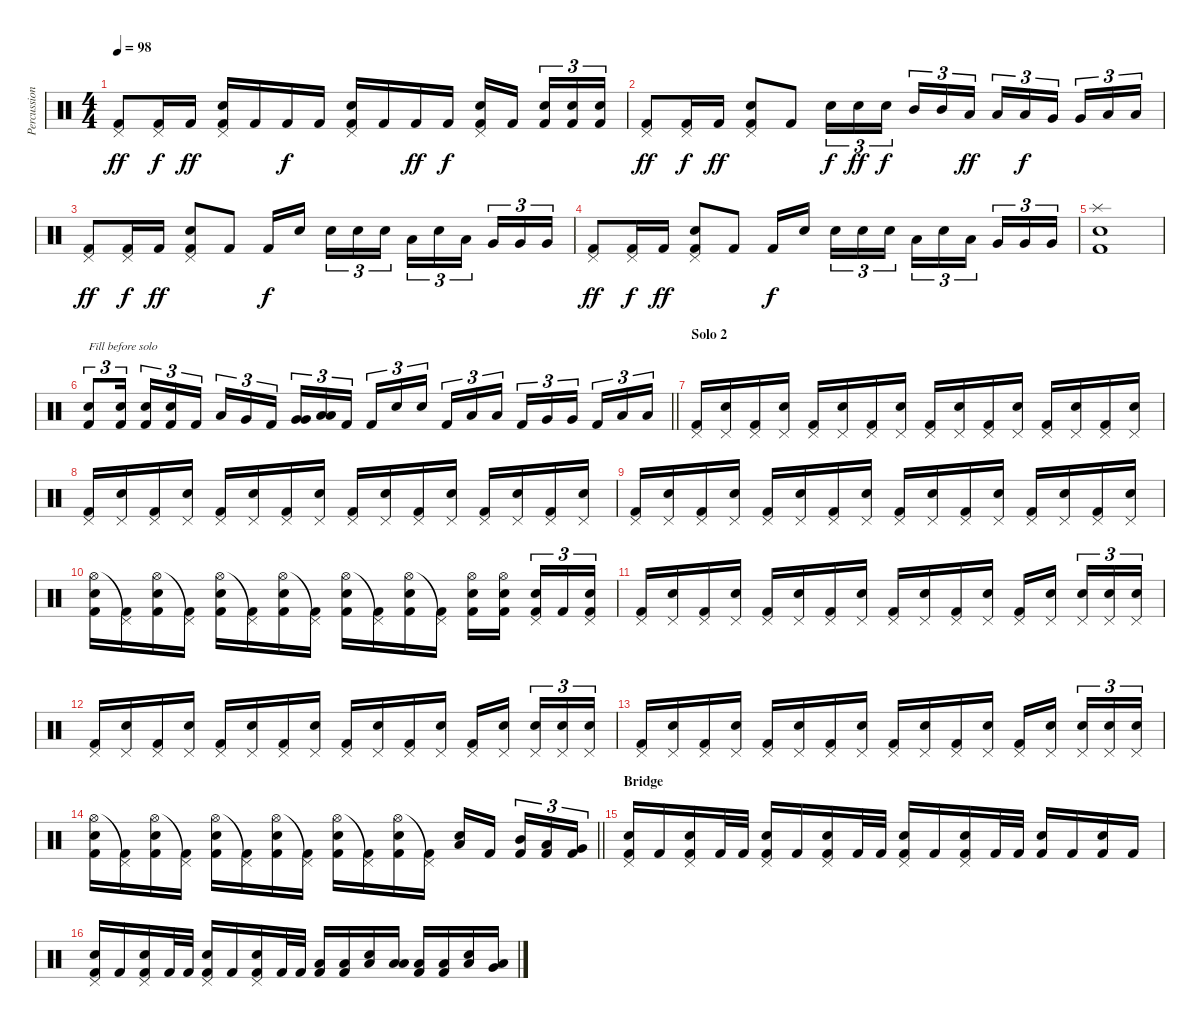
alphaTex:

\track ("Percussion" "Percussion") {instrument percussion}
\staff {score}
\articulation defaults
\ts (4 4)
\tempo 98
\clef neutral
\ks c
("Pedal Hi-Hat (hit)" "Kick (hit) 2").8{dy ff} ("Pedal Hi-Hat (hit)" "Kick (hit) 2").16{dy f} "Kick (hit) 2".16{dy ff} ("Pedal Hi-Hat (hit)" "Snare (hit) 2" "Kick (hit) 2").16 "Kick (hit) 2".16 "Kick (hit) 2".16{dy f} "Kick (hit) 2".16 ("Pedal Hi-Hat (hit)" "Snare (hit) 2" "Kick (hit) 2").16 "Kick (hit) 2".16 "Kick (hit) 2".16{dy ff} "Kick (hit) 2".16{dy f} ("Pedal Hi-Hat (hit)" "Snare (hit) 2" "Kick (hit) 2").16 "Kick (hit) 2".16{beam splitsecondary} ("Snare (hit) 2" "Kick (hit) 2").16{tu (3 2)} ("Snare (hit) 2" "Kick (hit) 2").16{tu (3 2)} ("Snare (hit) 2" "Kick (hit) 2").16{tu (3 2)} |
("Pedal Hi-Hat (hit)" "Kick (hit) 2").8{dy ff} ("Pedal Hi-Hat (hit)" "Kick (hit) 2").16{dy f} "Kick (hit) 2".16{dy ff} ("Pedal Hi-Hat (hit)" "Snare (hit) 2" "Kick (hit) 2").8 "Kick (hit) 2".8 "Snare (hit) 2".16{tu (3 2) dy f} "Snare (hit) 2".16{tu (3 2) dy ff} "Snare (hit) 2".16{tu (3 2) dy f beam splitsecondary} "Mid Tom (hit)".16{tu (3 2)} "Mid Tom (hit)".16{tu (3 2)} "Low Tom (hit)".16{tu (3 2) dy ff} "Low Tom (hit)".16{tu (3 2)} "Low Tom (hit)".16{tu (3 2) dy f} "Very Low Tom (hit)".16{tu (3 2) beam splitsecondary} "Very Low Tom (hit)".16{tu (3 2)} "Low Floor Tom (hit)".16{tu (3 2)} "Low Floor Tom (hit)".16{tu (3 2)} |
("Pedal Hi-Hat (hit)" "Kick (hit) 2").8{dy ff} ("Pedal Hi-Hat (hit)" "Kick (hit) 2").16{dy f} "Kick (hit) 2".16{dy ff} ("Pedal Hi-Hat (hit)" "Snare (hit) 2" "Kick (hit) 2").8 "Kick (hit) 2".8 "Kick (hit) 2".16{dy f} "Snare (hit) 2".16{beam splitsecondary} "Snare (hit) 2".16{tu (3 2)} "Snare (hit) 2".16{tu (3 2)} "Snare (hit) 2".16{tu (3 2)} "Low Tom (hit)".16{tu (3 2)} "Snare (hit) 2".16{tu (3 2)} "Low Tom (hit)".16{tu (3 2) beam splitsecondary} "Very Low Tom (hit)".16{tu (3 2)} "Very Low Tom (hit)".16{tu (3 2)} "Very Low Tom (hit)".16{tu (3 2)} |
("Pedal Hi-Hat (hit)" "Kick (hit) 2").8{dy ff} ("Pedal Hi-Hat (hit)" "Kick (hit) 2").16{dy f} "Kick (hit) 2".16{dy ff} ("Pedal Hi-Hat (hit)" "Snare (hit) 2" "Kick (hit) 2").8 "Kick (hit) 2".8 "Kick (hit) 2".16{dy f} "Snare (hit) 2".16{beam splitsecondary} "Snare (hit) 2".16{tu (3 2)} "Snare (hit) 2".16{tu (3 2)} "Snare (hit) 2".16{tu (3 2)} "Low Tom (hit)".16{tu (3 2)} "Snare (hit) 2".16{tu (3 2)} "Low Tom (hit)".16{tu (3 2) beam splitsecondary} "Very Low Tom (hit)".16{tu (3 2)} "Very Low Tom (hit)".16{tu (3 2)} "Very Low Tom (hit)".16{tu (3 2)} |
("Splash (hit)" "Snare (hit) 2" "Kick (hit) 2").1 |
\barLineRight lightlight
("Snare (hit) 2" "Kick (hit) 2").8{tu (3 2) txt "Fill before solo"} ("Snare (hit) 2" "Kick (hit) 2").16{tu (3 2) beam splitsecondary} ("Snare (hit) 2" "Kick (hit) 2").16{tu (3 2)} ("Snare (hit) 2" "Kick (hit) 2").16{tu (3 2)} "Kick (hit) 2".16{tu (3 2)} "Low Tom (hit)".16{tu (3 2)} "Very Low Tom (hit)".16{tu (3 2)} "Kick (hit) 2".16{tu (3 2) beam splitsecondary} ("Very Low Tom (hit)" "Very Low Tom (hit)").16{tu (3 2)} ("Low Floor Tom (hit)" "Low Floor Tom (hit)").16{tu (3 2)} "Kick (hit) 2".16{tu (3 2)} "Kick (hit) 2".16{tu (3 2)} "Snare (hit) 2".16{tu (3 2)} "Snare (hit) 2".16{tu (3 2) beam splitsecondary} "Kick (hit) 2".16{tu (3 2)} "Low Tom (hit)".16{tu (3 2)} "Low Tom (hit)".16{tu (3 2)} "Kick (hit) 2".16{tu (3 2)} "Very Low Tom (hit)".16{tu (3 2)} "Very Low Tom (hit)".16{tu (3 2) beam splitsecondary} "Kick (hit) 2".16{tu (3 2)} "Low Floor Tom (hit)".16{tu (3 2)} "Low Floor Tom (hit)".16{tu (3 2)} |
\section ("" "Solo 2")
("Pedal Hi-Hat (hit)" "Kick (hit) 2").16 ("Pedal Hi-Hat (hit)" "Snare (hit) 2").16 ("Pedal Hi-Hat (hit)" "Kick (hit) 2").16 ("Pedal Hi-Hat (hit)" "Snare (hit) 2").16 ("Pedal Hi-Hat (hit)" "Kick (hit) 2").16 ("Pedal Hi-Hat (hit)" "Snare (hit) 2").16 ("Pedal Hi-Hat (hit)" "Kick (hit) 2").16 ("Pedal Hi-Hat (hit)" "Snare (hit) 2").16 ("Pedal Hi-Hat (hit)" "Kick (hit) 2").16 ("Pedal Hi-Hat (hit)" "Snare (hit) 2").16 ("Pedal Hi-Hat (hit)" "Kick (hit) 2").16 ("Pedal Hi-Hat (hit)" "Snare (hit) 2").16 ("Pedal Hi-Hat (hit)" "Kick (hit) 2").16 ("Pedal Hi-Hat (hit)" "Snare (hit) 2").16 ("Pedal Hi-Hat (hit)" "Kick (hit) 2").16 ("Pedal Hi-Hat (hit)" "Snare (hit) 2").16 |
("Pedal Hi-Hat (hit)" "Kick (hit) 2").16 ("Pedal Hi-Hat (hit)" "Snare (hit) 2").16 ("Pedal Hi-Hat (hit)" "Kick (hit) 2").16 ("Pedal Hi-Hat (hit)" "Snare (hit) 2").16 ("Pedal Hi-Hat (hit)" "Kick (hit) 2").16 ("Pedal Hi-Hat (hit)" "Snare (hit) 2").16 ("Pedal Hi-Hat (hit)" "Kick (hit) 2").16 ("Pedal Hi-Hat (hit)" "Snare (hit) 2").16 ("Pedal Hi-Hat (hit)" "Kick (hit) 2").16 ("Pedal Hi-Hat (hit)" "Snare (hit) 2").16 ("Pedal Hi-Hat (hit)" "Kick (hit) 2").16 ("Pedal Hi-Hat (hit)" "Snare (hit) 2").16 ("Pedal Hi-Hat (hit)" "Kick (hit) 2").16 ("Pedal Hi-Hat (hit)" "Snare (hit) 2").16 ("Pedal Hi-Hat (hit)" "Kick (hit) 2").16 ("Pedal Hi-Hat (hit)" "Snare (hit) 2").16 |
("Pedal Hi-Hat (hit)" "Kick (hit) 2").16 ("Pedal Hi-Hat (hit)" "Snare (hit) 2").16 ("Pedal Hi-Hat (hit)" "Kick (hit) 2").16 ("Pedal Hi-Hat (hit)" "Snare (hit) 2").16 ("Pedal Hi-Hat (hit)" "Kick (hit) 2").16 ("Pedal Hi-Hat (hit)" "Snare (hit) 2").16 ("Pedal Hi-Hat (hit)" "Kick (hit) 2").16 ("Pedal Hi-Hat (hit)" "Snare (hit) 2").16 ("Pedal Hi-Hat (hit)" "Kick (hit) 2").16 ("Pedal Hi-Hat (hit)" "Snare (hit) 2").16 ("Pedal Hi-Hat (hit)" "Kick (hit) 2").16 ("Pedal Hi-Hat (hit)" "Snare (hit) 2").16 ("Pedal Hi-Hat (hit)" "Kick (hit) 2").16 ("Pedal Hi-Hat (hit)" "Snare (hit) 2").16 ("Pedal Hi-Hat (hit)" "Kick (hit) 2").16 ("Pedal Hi-Hat (hit)" "Snare (hit) 2").16 |
("Hi-Hat (open)" "Snare (hit) 2" "Kick (hit) 2").16 ("Pedal Hi-Hat (hit)"{t} "Kick (hit) 2").16 ("Hi-Hat (open)" "Snare (hit) 2" "Kick (hit) 2").16 ("Pedal Hi-Hat (hit)"{t} "Kick (hit) 2").16 ("Hi-Hat (open)" "Snare (hit) 2" "Kick (hit) 2").16 ("Pedal Hi-Hat (hit)"{t} "Kick (hit) 2").16 ("Hi-Hat (open)" "Snare (hit) 2" "Kick (hit) 2").16 ("Pedal Hi-Hat (hit)"{t} "Kick (hit) 2").16 ("Hi-Hat (open)" "Snare (hit) 2" "Kick (hit) 2").16 ("Pedal Hi-Hat (hit)"{t} "Kick (hit) 2").16 ("Hi-Hat (open)" "Snare (hit) 2" "Kick (hit) 2").16 ("Pedal Hi-Hat (hit)"{t} "Kick (hit) 2").16 ("Hi-Hat (open)" "Snare (hit) 2" "Kick (hit) 2").16 ("Hi-Hat (open)" "Snare (hit) 2" "Kick (hit) 2").16{beam splitsecondary} ("Pedal Hi-Hat (hit)" "Snare (hit) 2" "Kick (hit) 2").16{tu (3 2)} "Kick (hit) 2".16{tu (3 2)} ("Pedal Hi-Hat (hit)" "Snare (hit) 2" "Kick (hit) 2").16{tu (3 2)} |
("Pedal Hi-Hat (hit)" "Kick (hit) 2").16 ("Pedal Hi-Hat (hit)" "Snare (hit) 2").16 ("Pedal Hi-Hat (hit)" "Kick (hit) 2").16 ("Pedal Hi-Hat (hit)" "Snare (hit) 2").16 ("Pedal Hi-Hat (hit)" "Kick (hit) 2").16 ("Pedal Hi-Hat (hit)" "Snare (hit) 2").16 ("Pedal Hi-Hat (hit)" "Kick (hit) 2").16 ("Pedal Hi-Hat (hit)" "Snare (hit) 2").16 ("Pedal Hi-Hat (hit)" "Kick (hit) 2").16 ("Pedal Hi-Hat (hit)" "Snare (hit) 2").16 ("Pedal Hi-Hat (hit)" "Kick (hit) 2").16 ("Pedal Hi-Hat (hit)" "Snare (hit) 2").16 ("Pedal Hi-Hat (hit)" "Kick (hit) 2").16 ("Pedal Hi-Hat (hit)" "Snare (hit) 2").16{beam splitsecondary} ("Pedal Hi-Hat (hit)" "Snare (hit) 2").16{tu (3 2)} ("Pedal Hi-Hat (hit)" "Snare (hit) 2").16{tu (3 2)} ("Pedal Hi-Hat (hit)" "Snare (hit) 2").16{tu (3 2)} |
("Pedal Hi-Hat (hit)" "Kick (hit) 2").16 ("Pedal Hi-Hat (hit)" "Snare (hit) 2").16 ("Pedal Hi-Hat (hit)" "Kick (hit) 2").16 ("Pedal Hi-Hat (hit)" "Snare (hit) 2").16 ("Pedal Hi-Hat (hit)" "Kick (hit) 2").16 ("Pedal Hi-Hat (hit)" "Snare (hit) 2").16 ("Pedal Hi-Hat (hit)" "Kick (hit) 2").16 ("Pedal Hi-Hat (hit)" "Snare (hit) 2").16 ("Pedal Hi-Hat (hit)" "Kick (hit) 2").16 ("Pedal Hi-Hat (hit)" "Snare (hit) 2").16 ("Pedal Hi-Hat (hit)" "Kick (hit) 2").16 ("Pedal Hi-Hat (hit)" "Snare (hit) 2").16 ("Pedal Hi-Hat (hit)" "Kick (hit) 2").16 ("Pedal Hi-Hat (hit)" "Snare (hit) 2").16{beam splitsecondary} ("Pedal Hi-Hat (hit)" "Snare (hit) 2").16{tu (3 2)} ("Pedal Hi-Hat (hit)" "Snare (hit) 2").16{tu (3 2)} ("Pedal Hi-Hat (hit)" "Snare (hit) 2").16{tu (3 2)} |
("Pedal Hi-Hat (hit)" "Kick (hit) 2").16 ("Pedal Hi-Hat (hit)" "Snare (hit) 2").16 ("Pedal Hi-Hat (hit)" "Kick (hit) 2").16 ("Pedal Hi-Hat (hit)" "Snare (hit) 2").16 ("Pedal Hi-Hat (hit)" "Kick (hit) 2").16 ("Pedal Hi-Hat (hit)" "Snare (hit) 2").16 ("Pedal Hi-Hat (hit)" "Kick (hit) 2").16 ("Pedal Hi-Hat (hit)" "Snare (hit) 2").16 ("Pedal Hi-Hat (hit)" "Kick (hit) 2").16 ("Pedal Hi-Hat (hit)" "Snare (hit) 2").16 ("Pedal Hi-Hat (hit)" "Kick (hit) 2").16 ("Pedal Hi-Hat (hit)" "Snare (hit) 2").16 ("Pedal Hi-Hat (hit)" "Kick (hit) 2").16 ("Pedal Hi-Hat (hit)" "Snare (hit) 2").16{beam splitsecondary} ("Pedal Hi-Hat (hit)" "Snare (hit) 2").16{tu (3 2)} ("Pedal Hi-Hat (hit)" "Snare (hit) 2").16{tu (3 2)} ("Pedal Hi-Hat (hit)" "Snare (hit) 2").16{tu (3 2)} |
\barLineRight lightlight
("Hi-Hat (open)" "Snare (hit) 2" "Kick (hit) 2").16 ("Pedal Hi-Hat (hit)"{t} "Kick (hit) 2").16 ("Hi-Hat (open)" "Snare (hit) 2" "Kick (hit) 2").16 ("Pedal Hi-Hat (hit)"{t} "Kick (hit) 2").16 ("Hi-Hat (open)" "Snare (hit) 2" "Kick (hit) 2").16 ("Pedal Hi-Hat (hit)"{t} "Kick (hit) 2").16 ("Hi-Hat (open)" "Snare (hit) 2" "Kick (hit) 2").16 ("Pedal Hi-Hat (hit)"{t} "Kick (hit) 2").16 ("Hi-Hat (open)" "Snare (hit) 2" "Kick (hit) 2").16 ("Pedal Hi-Hat (hit)"{t} "Kick (hit) 2").16 ("Hi-Hat (open)" "Snare (hit) 2" "Kick (hit) 2").16 ("Pedal Hi-Hat (hit)"{t} "Kick (hit) 2").16 ("Low Floor Tom (hit)" "Snare (hit) 2").16 "Kick (hit) 2".16{beam splitsecondary} ("Mid Tom (hit)" "Kick (hit) 2").16{tu (3 2)} ("Low Tom (hit)" "Kick (hit) 2").16{tu (3 2)} ("Very Low Tom (hit)" "Kick (hit) 2").16{tu (3 2)} |
\section ("" "Bridge")
("Pedal Hi-Hat (hit)" "Snare (hit) 2" "Kick (hit) 2").16 "Kick (hit) 2".16 ("Pedal Hi-Hat (hit)" "Snare (hit) 2" "Kick (hit) 2").16 "Kick (hit) 2".32 "Kick (hit) 2".32 ("Pedal Hi-Hat (hit)" "Snare (hit) 2" "Kick (hit) 2").16 "Kick (hit) 2".16 ("Pedal Hi-Hat (hit)" "Snare (hit) 2" "Kick (hit) 2").16 "Kick (hit) 2".32 "Kick (hit) 2".32 ("Pedal Hi-Hat (hit)" "Snare (hit) 2" "Kick (hit) 2").16 "Kick (hit) 2".16 ("Pedal Hi-Hat (hit)" "Snare (hit) 2" "Kick (hit) 2").16 "Kick (hit) 2".32 "Kick (hit) 2".32 ("Snare (hit) 2" "Kick (hit) 2").16 "Kick (hit) 2".16 ("Snare (hit) 2" "Kick (hit) 2").16 "Kick (hit) 2".16 |
("Pedal Hi-Hat (hit)" "Snare (hit) 2" "Kick (hit) 2").16 "Kick (hit) 2".16 ("Pedal Hi-Hat (hit)" "Snare (hit) 2" "Kick (hit) 2").16 "Kick (hit) 2".32 "Kick (hit) 2".32 ("Pedal Hi-Hat (hit)" "Snare (hit) 2" "Kick (hit) 2").16 "Kick (hit) 2".16 ("Pedal Hi-Hat (hit)" "Snare (hit) 2" "Kick (hit) 2").16 "Kick (hit) 2".32 "Kick (hit) 2".32 ("Low Floor Tom (hit)" "Kick (hit) 2").16 ("Low Floor Tom (hit)" "Kick (hit) 2").16 ("Snare (hit) 2" "Low Floor Tom (hit)").16 ("Low Tom (hit)" "Low Floor Tom (hit)").16 ("Low Floor Tom (hit)" "Kick (hit) 2").16 ("Low Floor Tom (hit)" "Kick (hit) 2").16 ("Snare (hit) 2" "Low Floor Tom (hit)").16 ("Very Low Tom (hit)" "Low Floor Tom (hit)").16
